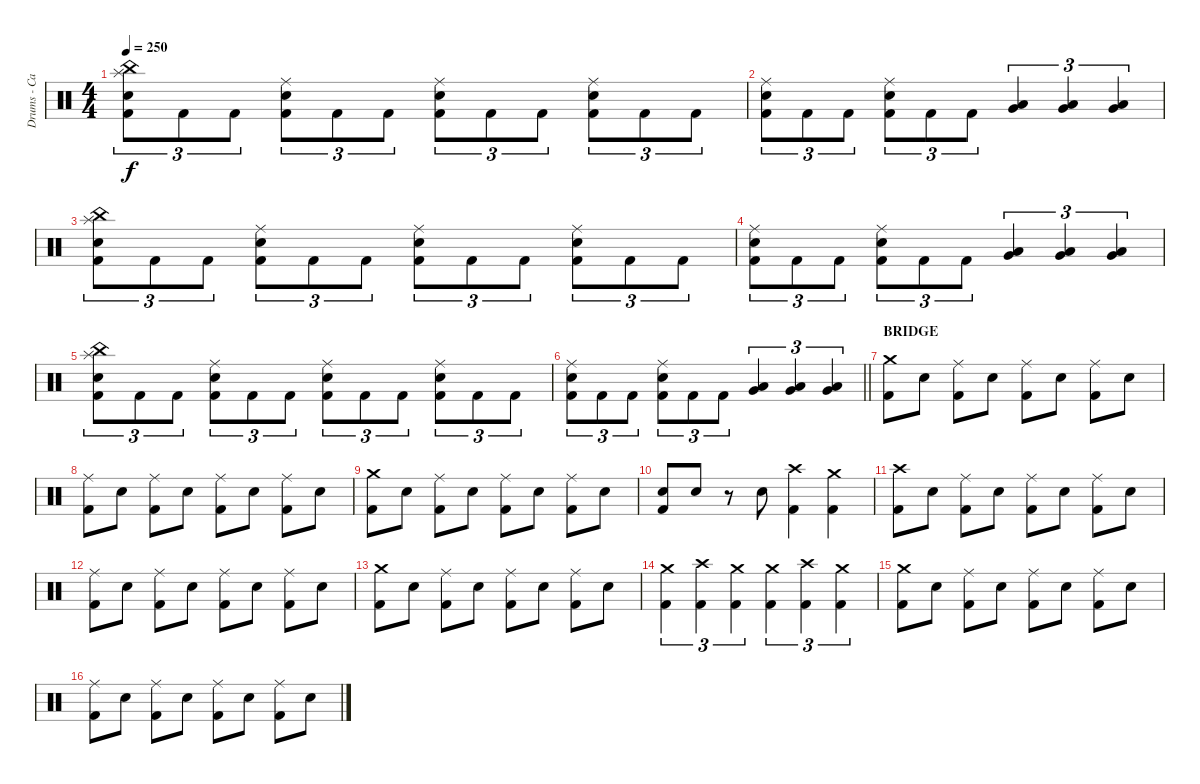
\track ("Drums - Carlos Cruz" "Drums - Ca") {instrument percussion}
\staff {score}
\articulation defaults
\ts (4 4)
\tempo 250
\clef neutral
\ks c
("China (hit)" "Splash (hit)" "Snare (hit) 2" "Kick (hit) 2").8{tu (3 2) dy f} "Kick (hit) 2".8{tu (3 2)} "Kick (hit) 2".8{tu (3 2)} ("Ride (middle)" "Snare (hit) 2" "Kick (hit) 2").8{tu (3 2)} "Kick (hit) 2".8{tu (3 2)} "Kick (hit) 2".8{tu (3 2)} ("Ride (middle)" "Snare (hit) 2" "Kick (hit) 2").8{tu (3 2)} "Kick (hit) 2".8{tu (3 2)} "Kick (hit) 2".8{tu (3 2)} ("Ride (middle)" "Snare (hit) 2" "Kick (hit) 2").8{tu (3 2)} "Kick (hit) 2".8{tu (3 2)} "Kick (hit) 2".8{tu (3 2)} |
("Ride (middle)" "Snare (hit) 2" "Kick (hit) 2").8{tu (3 2)} "Kick (hit) 2".8{tu (3 2)} "Kick (hit) 2".8{tu (3 2)} ("Ride (middle)" "Snare (hit) 2" "Kick (hit) 2").8{tu (3 2)} "Kick (hit) 2".8{tu (3 2)} "Kick (hit) 2".8{tu (3 2)} ("Low Tom (hit)" "Very Low Tom (hit)").4{tu (3 2)} ("Low Tom (hit)" "Very Low Tom (hit)").4{tu (3 2)} ("Low Tom (hit)" "Very Low Tom (hit)").4{tu (3 2)} |
("China (hit)" "Splash (hit)" "Snare (hit) 2" "Kick (hit) 2").8{tu (3 2)} "Kick (hit) 2".8{tu (3 2)} "Kick (hit) 2".8{tu (3 2)} ("Ride (middle)" "Snare (hit) 2" "Kick (hit) 2").8{tu (3 2)} "Kick (hit) 2".8{tu (3 2)} "Kick (hit) 2".8{tu (3 2)} ("Ride (middle)" "Snare (hit) 2" "Kick (hit) 2").8{tu (3 2)} "Kick (hit) 2".8{tu (3 2)} "Kick (hit) 2".8{tu (3 2)} ("Ride (middle)" "Snare (hit) 2" "Kick (hit) 2").8{tu (3 2)} "Kick (hit) 2".8{tu (3 2)} "Kick (hit) 2".8{tu (3 2)} |
("Ride (middle)" "Snare (hit) 2" "Kick (hit) 2").8{tu (3 2)} "Kick (hit) 2".8{tu (3 2)} "Kick (hit) 2".8{tu (3 2)} ("Ride (middle)" "Snare (hit) 2" "Kick (hit) 2").8{tu (3 2)} "Kick (hit) 2".8{tu (3 2)} "Kick (hit) 2".8{tu (3 2)} ("Low Tom (hit)" "Very Low Tom (hit)").4{tu (3 2)} ("Low Tom (hit)" "Very Low Tom (hit)").4{tu (3 2)} ("Low Tom (hit)" "Very Low Tom (hit)").4{tu (3 2)} |
("China (hit)" "Splash (hit)" "Snare (hit) 2" "Kick (hit) 2").8{tu (3 2)} "Kick (hit) 2".8{tu (3 2)} "Kick (hit) 2".8{tu (3 2)} ("Ride (middle)" "Snare (hit) 2" "Kick (hit) 2").8{tu (3 2)} "Kick (hit) 2".8{tu (3 2)} "Kick (hit) 2".8{tu (3 2)} ("Ride (middle)" "Snare (hit) 2" "Kick (hit) 2").8{tu (3 2)} "Kick (hit) 2".8{tu (3 2)} "Kick (hit) 2".8{tu (3 2)} ("Ride (middle)" "Snare (hit) 2" "Kick (hit) 2").8{tu (3 2)} "Kick (hit) 2".8{tu (3 2)} "Kick (hit) 2".8{tu (3 2)} |
\barLineRight lightlight
("Ride (middle)" "Snare (hit) 2" "Kick (hit) 2").8{tu (3 2)} "Kick (hit) 2".8{tu (3 2)} "Kick (hit) 2".8{tu (3 2)} ("Ride (middle)" "Snare (hit) 2" "Kick (hit) 2").8{tu (3 2)} "Kick (hit) 2".8{tu (3 2)} "Kick (hit) 2".8{tu (3 2)} ("Low Tom (hit)" "Very Low Tom (hit)").4{tu (3 2)} ("Low Tom (hit)" "Very Low Tom (hit)").4{tu (3 2)} ("Low Tom (hit)" "Very Low Tom (hit)").4{tu (3 2)} |
\section ("" "BRIDGE")
("Crash medium (hit)" "Kick (hit) 2").8 "Snare (hit) 2".8 ("Ride (middle)" "Kick (hit) 2").8 "Snare (hit) 2".8 ("Ride (middle)" "Kick (hit) 2").8 "Snare (hit) 2".8 ("Ride (middle)" "Kick (hit) 2").8 "Snare (hit) 2".8 |
("Ride (middle)" "Kick (hit) 2").8 "Snare (hit) 2".8 ("Ride (middle)" "Kick (hit) 2").8 "Snare (hit) 2".8 ("Ride (middle)" "Kick (hit) 2").8 "Snare (hit) 2".8 ("Ride (middle)" "Kick (hit) 2").8 "Snare (hit) 2".8 |
("Crash medium (hit)" "Kick (hit) 2").8 "Snare (hit) 2".8 ("Ride (middle)" "Kick (hit) 2").8 "Snare (hit) 2".8 ("Ride (middle)" "Kick (hit) 2").8 "Snare (hit) 2".8 ("Ride (middle)" "Kick (hit) 2").8 "Snare (hit) 2".8 |
("Snare (hit) 2" "Kick (hit) 2").8 "Snare (hit) 2".8 r.8 "Snare (hit) 2".8 ("Crash high (hit)" "Kick (hit) 2").4 ("Crash medium (hit)" "Kick (hit) 2").4 |
("Crash high (hit)" "Kick (hit) 2").8 "Snare (hit) 2".8 ("Ride (middle)" "Kick (hit) 2").8 "Snare (hit) 2".8 ("Ride (middle)" "Kick (hit) 2").8 "Snare (hit) 2".8 ("Ride (middle)" "Kick (hit) 2").8 "Snare (hit) 2".8 |
("Ride (middle)" "Kick (hit) 2").8 "Snare (hit) 2".8 ("Ride (middle)" "Kick (hit) 2").8 "Snare (hit) 2".8 ("Ride (middle)" "Kick (hit) 2").8 "Snare (hit) 2".8 ("Ride (middle)" "Kick (hit) 2").8 "Snare (hit) 2".8 |
("Crash medium (hit)" "Kick (hit) 2").8 "Snare (hit) 2".8 ("Ride (middle)" "Kick (hit) 2").8 "Snare (hit) 2".8 ("Ride (middle)" "Kick (hit) 2").8 "Snare (hit) 2".8 ("Ride (middle)" "Kick (hit) 2").8 "Snare (hit) 2".8 |
("Crash medium (hit)" "Kick (hit) 2").4{tu (3 2)} ("Crash high (hit)" "Kick (hit) 2").4{tu (3 2)} ("Crash medium (hit)" "Kick (hit) 2").4{tu (3 2)} ("Crash medium (hit)" "Kick (hit) 2").4{tu (3 2)} ("Crash high (hit)" "Kick (hit) 2").4{tu (3 2)} ("Crash medium (hit)" "Kick (hit) 2").4{tu (3 2)} |
("Crash medium (hit)" "Kick (hit) 2").8 "Snare (hit) 2".8 ("Ride (middle)" "Kick (hit) 2").8 "Snare (hit) 2".8 ("Ride (middle)" "Kick (hit) 2").8 "Snare (hit) 2".8 ("Ride (middle)" "Kick (hit) 2").8 "Snare (hit) 2".8 |
("Ride (middle)" "Kick (hit) 2").8 "Snare (hit) 2".8 ("Ride (middle)" "Kick (hit) 2").8 "Snare (hit) 2".8 ("Ride (middle)" "Kick (hit) 2").8 "Snare (hit) 2".8 ("Ride (middle)" "Kick (hit) 2").8 "Snare (hit) 2".8
